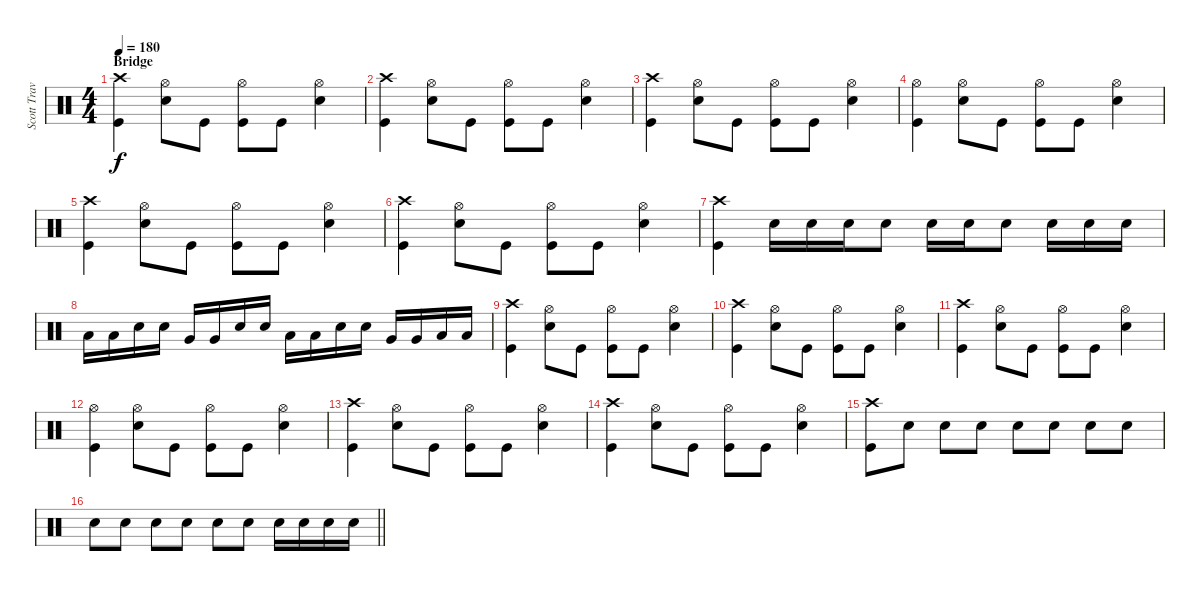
\track ("Scott Travis" "Scott Trav") {instrument percussion}
\staff {score}
\articulation defaults
\ts (4 4)
\section ("" "Bridge")
\tempo 180
\clef neutral
\ks c
("Crash high (hit)" "Kick (hit)").4{dy f} ("Hi-Hat (open)" "Snare (hit) 2").8 "Kick (hit)".8 ("Hi-Hat (open)" "Kick (hit)").8 "Kick (hit)".8 ("Hi-Hat (open)" "Snare (hit) 2").4 |
("Crash high (hit)" "Kick (hit)").4 ("Hi-Hat (open)" "Snare (hit) 2").8 "Kick (hit)".8 ("Hi-Hat (open)" "Kick (hit)").8 "Kick (hit)".8 ("Hi-Hat (open)" "Snare (hit) 2").4 |
("Crash high (hit)" "Kick (hit)").4 ("Hi-Hat (open)" "Snare (hit) 2").8 "Kick (hit)".8 ("Hi-Hat (open)" "Kick (hit)").8 "Kick (hit)".8 ("Hi-Hat (open)" "Snare (hit) 2").4 |
("Hi-Hat (open)" "Kick (hit)").4 ("Hi-Hat (open)" "Snare (hit) 2").8 "Kick (hit)".8 ("Hi-Hat (open)" "Kick (hit)").8 "Kick (hit)".8 ("Hi-Hat (open)" "Snare (hit) 2").4 |
("Crash high (hit)" "Kick (hit)").4 ("Hi-Hat (open)" "Snare (hit) 2").8 "Kick (hit)".8 ("Hi-Hat (open)" "Kick (hit)").8 "Kick (hit)".8 ("Hi-Hat (open)" "Snare (hit) 2").4 |
("Crash high (hit)" "Kick (hit)").4 ("Hi-Hat (open)" "Snare (hit) 2").8 "Kick (hit)".8 ("Hi-Hat (open)" "Kick (hit)").8 "Kick (hit)".8 ("Hi-Hat (open)" "Snare (hit) 2").4 |
("Crash high (hit)" "Kick (hit)").4 "Snare (hit) 2".16 "Snare (hit) 2".16 "Snare (hit) 2".16 "Snare (hit) 2".8 "Snare (hit) 2".16 "Snare (hit) 2".16 "Snare (hit) 2".8 "Snare (hit) 2".16 "Snare (hit) 2".16 "Snare (hit) 2".16 |
"Low Tom (hit)".16 "Low Tom (hit)".16 "Snare (hit) 2".16 "Snare (hit) 2".16 "Very Low Tom (hit)".16 "Very Low Tom (hit)".16 "Snare (hit) 2".16 "Snare (hit) 2".16 "Low Floor Tom (hit)".16 "Low Floor Tom (hit)".16 "Snare (hit) 2".16 "Snare (hit) 2".16 "Very Low Tom (hit)".16 "Very Low Tom (hit)".16 "Low Floor Tom (hit)".16 "Low Floor Tom (hit)".16 |
("Crash high (hit)" "Kick (hit)").4 ("Hi-Hat (open)" "Snare (hit) 2").8 "Kick (hit)".8 ("Hi-Hat (open)" "Kick (hit)").8 "Kick (hit)".8 ("Hi-Hat (open)" "Snare (hit) 2").4 |
("Crash high (hit)" "Kick (hit)").4 ("Hi-Hat (open)" "Snare (hit) 2").8 "Kick (hit)".8 ("Hi-Hat (open)" "Kick (hit)").8 "Kick (hit)".8 ("Hi-Hat (open)" "Snare (hit) 2").4 |
("Crash high (hit)" "Kick (hit)").4 ("Hi-Hat (open)" "Snare (hit) 2").8 "Kick (hit)".8 ("Hi-Hat (open)" "Kick (hit)").8 "Kick (hit)".8 ("Hi-Hat (open)" "Snare (hit) 2").4 |
("Hi-Hat (open)" "Kick (hit)").4 ("Hi-Hat (open)" "Snare (hit) 2").8 "Kick (hit)".8 ("Hi-Hat (open)" "Kick (hit)").8 "Kick (hit)".8 ("Hi-Hat (open)" "Snare (hit) 2").4 |
("Crash high (hit)" "Kick (hit)").4 ("Hi-Hat (open)" "Snare (hit) 2").8 "Kick (hit)".8 ("Hi-Hat (open)" "Kick (hit)").8 "Kick (hit)".8 ("Hi-Hat (open)" "Snare (hit) 2").4 |
("Crash high (hit)" "Kick (hit)").4 ("Hi-Hat (open)" "Snare (hit) 2").8 "Kick (hit)".8 ("Hi-Hat (open)" "Kick (hit)").8 "Kick (hit)".8 ("Hi-Hat (open)" "Snare (hit) 2").4 |
("Crash high (hit)" "Kick (hit)").8 "Snare (hit) 2".8 "Snare (hit) 2".8 "Snare (hit) 2".8 "Snare (hit) 2".8 "Snare (hit) 2".8 "Snare (hit) 2".8 "Snare (hit) 2".8 |
\barLineRight lightlight "Snare (hit) 2".8 "Snare (hit) 2".8 "Snare (hit) 2".8 "Snare (hit) 2".8 "Snare (hit) 2".8 "Snare (hit) 2".8 "Snare (hit) 2".16 "Snare (hit) 2".16 "Snare (hit) 2".16 "Snare (hit) 2".16
